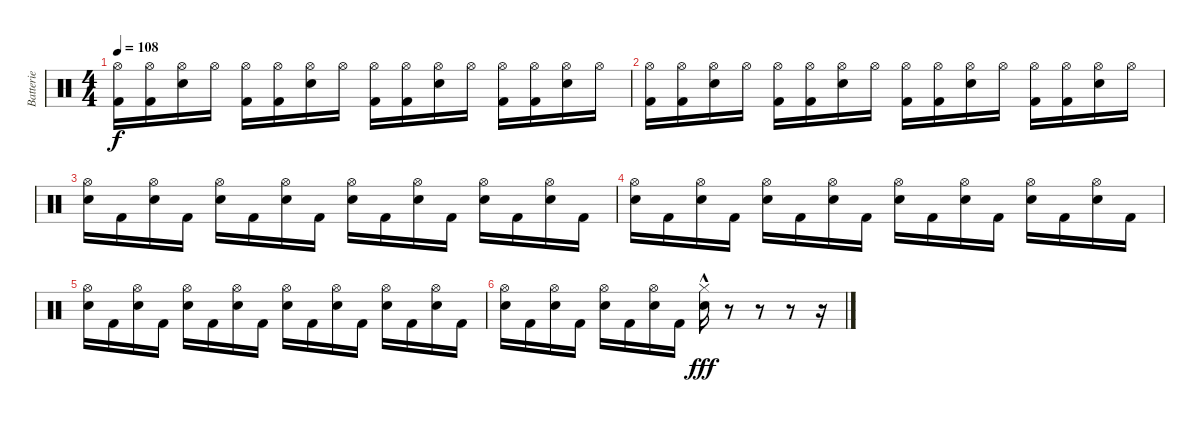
\track ("Batterie" "Batterie") {instrument percussion}
\staff {score}
\articulation defaults
\ts (4 4)
\tempo 108
\clef neutral
\ks c
("Kick (hit) 2" "Hi-Hat (open)").16{dy f} ("Kick (hit) 2" "Hi-Hat (open)").16 ("Electric Snare (hit)" "Hi-Hat (open)").16 "Hi-Hat (open)".16 ("Kick (hit) 2" "Hi-Hat (open)").16 ("Kick (hit) 2" "Hi-Hat (open)").16 ("Electric Snare (hit)" "Hi-Hat (open)").16 "Hi-Hat (open)".16 ("Kick (hit) 2" "Hi-Hat (open)").16 ("Kick (hit) 2" "Hi-Hat (open)").16 ("Electric Snare (hit)" "Hi-Hat (open)").16 "Hi-Hat (open)".16 ("Kick (hit) 2" "Hi-Hat (open)").16 ("Kick (hit) 2" "Hi-Hat (open)").16 ("Electric Snare (hit)" "Hi-Hat (open)").16 "Hi-Hat (open)".16 |
("Kick (hit) 2" "Hi-Hat (open)").16 ("Kick (hit) 2" "Hi-Hat (open)").16 ("Electric Snare (hit)" "Hi-Hat (open)").16 "Hi-Hat (open)".16 ("Kick (hit) 2" "Hi-Hat (open)").16 ("Kick (hit) 2" "Hi-Hat (open)").16 ("Electric Snare (hit)" "Hi-Hat (open)").16 "Hi-Hat (open)".16 ("Kick (hit) 2" "Hi-Hat (open)").16 ("Kick (hit) 2" "Hi-Hat (open)").16 ("Electric Snare (hit)" "Hi-Hat (open)").16 "Hi-Hat (open)".16 ("Kick (hit) 2" "Hi-Hat (open)").16 ("Kick (hit) 2" "Hi-Hat (open)").16 ("Electric Snare (hit)" "Hi-Hat (open)").16 "Hi-Hat (open)".16 |
("Electric Snare (hit)" "Hi-Hat (open)").16 "Kick (hit) 2".16 ("Electric Snare (hit)" "Hi-Hat (open)").16 "Kick (hit) 2".16 ("Electric Snare (hit)" "Hi-Hat (open)").16 "Kick (hit) 2".16 ("Electric Snare (hit)" "Hi-Hat (open)").16 "Kick (hit) 2".16 ("Electric Snare (hit)" "Hi-Hat (open)").16 "Kick (hit) 2".16 ("Electric Snare (hit)" "Hi-Hat (open)").16 "Kick (hit) 2".16 ("Electric Snare (hit)" "Hi-Hat (open)").16 "Kick (hit) 2".16 ("Electric Snare (hit)" "Hi-Hat (open)").16 "Kick (hit) 2".16 |
("Electric Snare (hit)" "Hi-Hat (open)").16 "Kick (hit) 2".16 ("Electric Snare (hit)" "Hi-Hat (open)").16 "Kick (hit) 2".16 ("Electric Snare (hit)" "Hi-Hat (open)").16 "Kick (hit) 2".16 ("Electric Snare (hit)" "Hi-Hat (open)").16 "Kick (hit) 2".16 ("Electric Snare (hit)" "Hi-Hat (open)").16 "Kick (hit) 2".16 ("Electric Snare (hit)" "Hi-Hat (open)").16 "Kick (hit) 2".16 ("Electric Snare (hit)" "Hi-Hat (open)").16 "Kick (hit) 2".16 ("Electric Snare (hit)" "Hi-Hat (open)").16 "Kick (hit) 2".16 |
("Electric Snare (hit)" "Hi-Hat (open)").16 "Kick (hit) 2".16 ("Electric Snare (hit)" "Hi-Hat (open)").16 "Kick (hit) 2".16 ("Electric Snare (hit)" "Hi-Hat (open)").16 "Kick (hit) 2".16 ("Electric Snare (hit)" "Hi-Hat (open)").16 "Kick (hit) 2".16 ("Electric Snare (hit)" "Hi-Hat (open)").16 "Kick (hit) 2".16 ("Electric Snare (hit)" "Hi-Hat (open)").16 "Kick (hit) 2".16 ("Electric Snare (hit)" "Hi-Hat (open)").16 "Kick (hit) 2".16 ("Electric Snare (hit)" "Hi-Hat (open)").16 "Kick (hit) 2".16 |
("Electric Snare (hit)" "Hi-Hat (open)").16 "Kick (hit) 2".16 ("Electric Snare (hit)" "Hi-Hat (open)").16 "Kick (hit) 2".16 ("Electric Snare (hit)" "Hi-Hat (open)").16 "Kick (hit) 2".16 ("Electric Snare (hit)" "Hi-Hat (open)").16 "Kick (hit) 2".16 ("Electric Snare (hit)"{hac} "Hi-Hat (closed)"{hac}).16{dy fff} r.8 r.8 r.8 r.16
